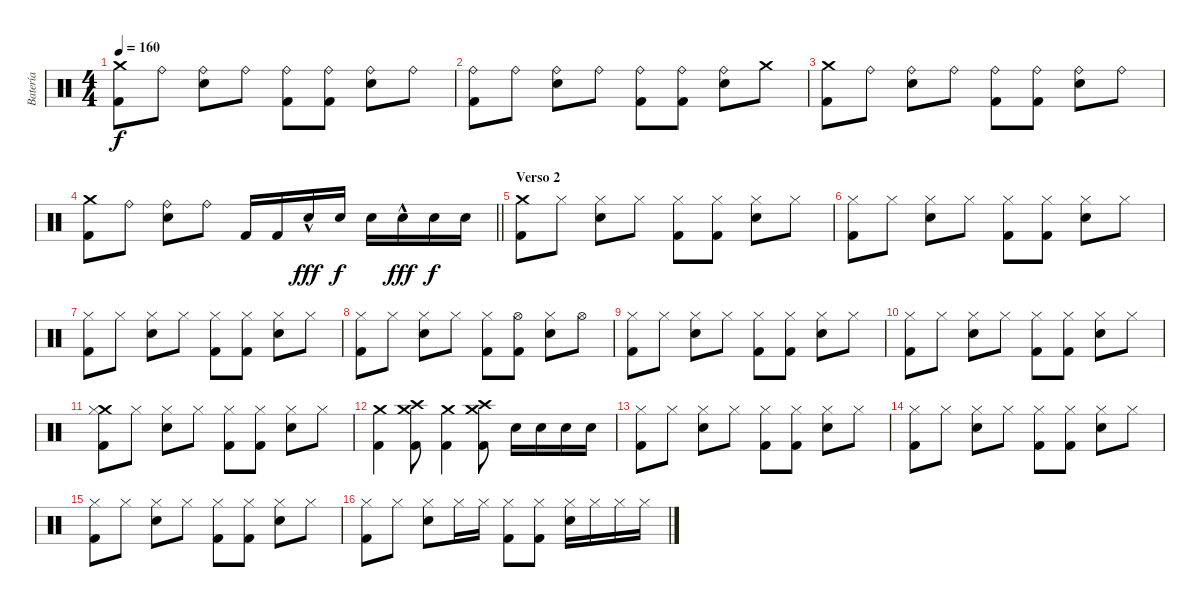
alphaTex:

\track ("Batería" "Batería") {instrument percussion}
\staff {score}
\articulation defaults
\ts (4 4)
\tempo 160
\clef neutral
\ks c
("Crash medium (hit)" "Kick (hit) 2").8{dy f} "Ride (bell)".8 ("Ride (bell)" "Snare (hit) 2").8 "Ride (bell)".8 ("Ride (bell)" "Kick (hit) 2").8 ("Ride (bell)" "Kick (hit) 2").8 ("Ride (bell)" "Snare (hit) 2").8 "Ride (bell)".8 |
("Ride (bell)" "Kick (hit) 2").8 "Ride (bell)".8 ("Ride (bell)" "Snare (hit) 2").8 "Ride (bell)".8 ("Ride (bell)" "Kick (hit) 2").8 ("Ride (bell)" "Kick (hit) 2").8 ("Ride (bell)" "Snare (hit) 2").8 "Crash medium (hit)".8 |
("Crash medium (hit)" "Kick (hit) 2").8 "Ride (bell)".8 ("Ride (bell)" "Snare (hit) 2").8 "Ride (bell)".8 ("Ride (bell)" "Kick (hit) 2").8 ("Ride (bell)" "Kick (hit) 2").8 ("Ride (bell)" "Snare (hit) 2").8 "Ride (bell)".8 |
\barLineRight lightlight
("Crash medium (hit)" "Kick (hit) 2").8 "Ride (bell)".8 ("Ride (bell)" "Snare (hit) 2").8 "Ride (bell)".8 "Kick (hit) 2".16 "Kick (hit) 2".16 "Snare (hit) 2"{hac}.16{dy fff} "Snare (hit) 2".16{dy f} "Snare (hit) 2".16 "Snare (hit) 2"{hac}.16{dy fff} "Snare (hit) 2".16{dy f} "Snare (hit) 2".16 |
\section ("" "Verso 2")
("Crash medium (hit)" "Kick (hit) 2").8 "Hi-Hat (closed)".8 ("Hi-Hat (closed)" "Snare (hit) 2").8 "Hi-Hat (closed)".8 ("Hi-Hat (closed)" "Kick (hit) 2").8 ("Hi-Hat (closed)" "Kick (hit) 2").8 ("Hi-Hat (closed)" "Snare (hit) 2").8 "Hi-Hat (closed)".8 |
("Hi-Hat (closed)" "Kick (hit) 2").8 "Hi-Hat (closed)".8 ("Hi-Hat (closed)" "Snare (hit) 2").8 "Hi-Hat (closed)".8 ("Hi-Hat (closed)" "Kick (hit) 2").8 ("Hi-Hat (closed)" "Kick (hit) 2").8 ("Hi-Hat (closed)" "Snare (hit) 2").8 "Hi-Hat (closed)".8 |
("Hi-Hat (closed)" "Kick (hit) 2").8 "Hi-Hat (closed)".8 ("Hi-Hat (closed)" "Snare (hit) 2").8 "Hi-Hat (closed)".8 ("Hi-Hat (closed)" "Kick (hit) 2").8 ("Hi-Hat (closed)" "Kick (hit) 2").8 ("Hi-Hat (closed)" "Snare (hit) 2").8 "Hi-Hat (closed)".8 |
("Hi-Hat (closed)" "Kick (hit) 2").8 "Hi-Hat (closed)".8 ("Hi-Hat (closed)" "Snare (hit) 2").8 "Hi-Hat (closed)".8 ("Hi-Hat (closed)" "Kick (hit) 2").8 ("Hi-Hat (open)" "Kick (hit) 2").8 ("Hi-Hat (closed)" "Snare (hit) 2").8 "Hi-Hat (open)".8 |
("Hi-Hat (closed)" "Kick (hit) 2").8 "Hi-Hat (closed)".8 ("Hi-Hat (closed)" "Snare (hit) 2").8 "Hi-Hat (closed)".8 ("Hi-Hat (closed)" "Kick (hit) 2").8 ("Hi-Hat (closed)" "Kick (hit) 2").8 ("Hi-Hat (closed)" "Snare (hit) 2").8 "Hi-Hat (closed)".8 |
("Hi-Hat (closed)" "Kick (hit) 2").8 "Hi-Hat (closed)".8 ("Hi-Hat (closed)" "Snare (hit) 2").8 "Hi-Hat (closed)".8 ("Hi-Hat (closed)" "Kick (hit) 2").8 ("Hi-Hat (closed)" "Kick (hit) 2").8 ("Hi-Hat (closed)" "Snare (hit) 2").8 "Hi-Hat (closed)".8 |
("Crash medium (hit)" "Hi-Hat (closed)" "Kick (hit) 2").8 "Hi-Hat (closed)".8 ("Hi-Hat (closed)" "Snare (hit) 2").8 "Hi-Hat (closed)".8 ("Hi-Hat (closed)" "Kick (hit) 2").8 ("Hi-Hat (closed)" "Kick (hit) 2").8 ("Hi-Hat (closed)" "Snare (hit) 2").8 "Hi-Hat (closed)".8 |
("Crash medium (hit)" "Kick (hit) 2").4 ("Crash high (hit)" "Crash medium (hit)" "Kick (hit) 2").8 ("Crash medium (hit)" "Kick (hit) 2").4 ("Crash high (hit)" "Crash medium (hit)" "Kick (hit) 2").8 "Snare (hit) 2".16 "Snare (hit) 2".16 "Snare (hit) 2".16 "Snare (hit) 2".16 |
("Hi-Hat (closed)" "Kick (hit) 2").8 "Hi-Hat (closed)".8 ("Hi-Hat (closed)" "Snare (hit) 2").8 "Hi-Hat (closed)".8 ("Hi-Hat (closed)" "Kick (hit) 2").8 ("Hi-Hat (closed)" "Kick (hit) 2").8 ("Hi-Hat (closed)" "Snare (hit) 2").8 "Hi-Hat (closed)".8 |
("Hi-Hat (closed)" "Kick (hit) 2").8 "Hi-Hat (closed)".8 ("Hi-Hat (closed)" "Snare (hit) 2").8 "Hi-Hat (closed)".8 ("Hi-Hat (closed)" "Kick (hit) 2").8 ("Hi-Hat (closed)" "Kick (hit) 2").8 ("Hi-Hat (closed)" "Snare (hit) 2").8 "Hi-Hat (closed)".8 |
("Hi-Hat (closed)" "Kick (hit) 2").8 "Hi-Hat (closed)".8 ("Hi-Hat (closed)" "Snare (hit) 2").8 "Hi-Hat (closed)".8 ("Hi-Hat (closed)" "Kick (hit) 2").8 ("Hi-Hat (closed)" "Kick (hit) 2").8 ("Hi-Hat (closed)" "Snare (hit) 2").8 "Hi-Hat (closed)".8 |
("Hi-Hat (closed)" "Kick (hit) 2").8 "Hi-Hat (closed)".8 ("Hi-Hat (closed)" "Snare (hit) 2").8 "Hi-Hat (closed)".16 "Hi-Hat (closed)".16 ("Hi-Hat (closed)" "Kick (hit) 2").8 ("Hi-Hat (closed)" "Kick (hit) 2").8 ("Hi-Hat (closed)" "Snare (hit) 2").16 "Hi-Hat (closed)".16 "Hi-Hat (closed)".16 "Hi-Hat (closed)".16
